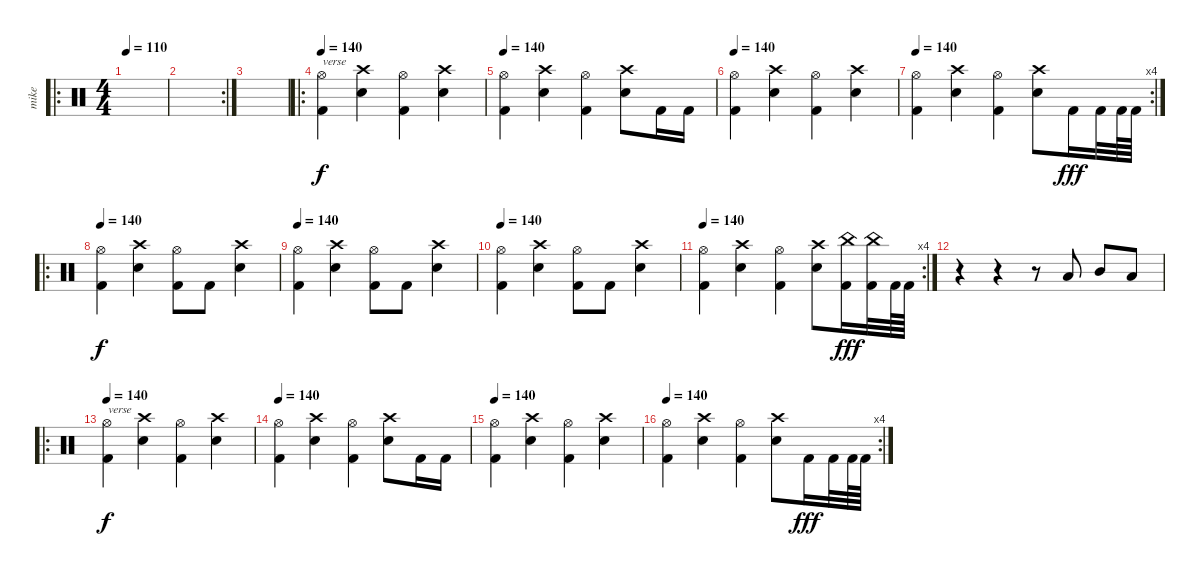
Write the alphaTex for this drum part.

\track ("mike" "mike") {instrument percussion}
\staff {score}
\articulation defaults
\ro
\ts (4 4)
\tempo 110
\clef neutral
\ks c
|
\rc 2
|
|
\ro
\tempo 140
("Hi-Hat (open)" "Kick (hit) 2").4{txt "verse"} ("Crash high (hit)" "Electric Snare (hit)").4 ("Hi-Hat (open)" "Kick (hit) 2").4 ("Crash high (hit)" "Electric Snare (hit)").4 |
\tempo 140
("Hi-Hat (open)" "Kick (hit) 2").4 ("Crash high (hit)" "Electric Snare (hit)").4 ("Hi-Hat (open)" "Kick (hit) 2").4 ("Crash high (hit)" "Electric Snare (hit)").8 "Kick (hit) 2".16 "Kick (hit) 2".16 |
\tempo 140
("Hi-Hat (open)" "Kick (hit) 2").4 ("Crash high (hit)" "Electric Snare (hit)").4 ("Hi-Hat (open)" "Kick (hit) 2").4 ("Crash high (hit)" "Electric Snare (hit)").4 |
\rc 4
\tempo 140
("Hi-Hat (open)" "Kick (hit) 2").4 ("Crash high (hit)" "Electric Snare (hit)").4 ("Hi-Hat (open)" "Kick (hit) 2").4 ("Crash high (hit)" "Electric Snare (hit)").8 "Kick (hit) 2".16{dy fff} "Kick (hit) 2".32 "Kick (hit) 2".64 "Kick (hit) 2".64 |
\ro
\tempo 140
("Hi-Hat (open)" "Kick (hit) 2").4{dy f} ("Crash high (hit)" "Electric Snare (hit)").4 ("Hi-Hat (open)" "Kick (hit) 2").8 "Kick (hit) 2".8 ("Crash high (hit)" "Electric Snare (hit)").4 |
\tempo 140
("Hi-Hat (open)" "Kick (hit) 2").4 ("Crash high (hit)" "Electric Snare (hit)").4 ("Hi-Hat (open)" "Kick (hit) 2").8 "Kick (hit) 2".8 ("Crash high (hit)" "Electric Snare (hit)").4 |
\tempo 140
("Hi-Hat (open)" "Kick (hit) 2").4 ("Crash high (hit)" "Electric Snare (hit)").4 ("Hi-Hat (open)" "Kick (hit) 2").8 "Kick (hit) 2".8 ("Crash high (hit)" "Electric Snare (hit)").4 |
\rc 4
\tempo 140
("Hi-Hat (open)" "Kick (hit) 2").4 ("Crash high (hit)" "Electric Snare (hit)").4 ("Hi-Hat (open)" "Kick (hit) 2").4 ("Crash high (hit)" "Electric Snare (hit)").8 ("China (hit)" "Kick (hit) 2").16{dy fff} ("China (hit)" "Kick (hit) 2").32 "Kick (hit) 2".64 "Kick (hit) 2".64 |
r.4 r.4 r.8 "Low Floor Tom (hit)".8 "Mid Tom (hit)".8 "Low Tom (hit)".8 |
\ro
\tempo 140
("Hi-Hat (open)" "Kick (hit) 2").4{txt "verse" dy f} ("Crash high (hit)" "Electric Snare (hit)").4 ("Hi-Hat (open)" "Kick (hit) 2").4 ("Crash high (hit)" "Electric Snare (hit)").4 |
\tempo 140
("Hi-Hat (open)" "Kick (hit) 2").4 ("Crash high (hit)" "Electric Snare (hit)").4 ("Hi-Hat (open)" "Kick (hit) 2").4 ("Crash high (hit)" "Electric Snare (hit)").8 "Kick (hit) 2".16 "Kick (hit) 2".16 |
\tempo 140
("Hi-Hat (open)" "Kick (hit) 2").4 ("Crash high (hit)" "Electric Snare (hit)").4 ("Hi-Hat (open)" "Kick (hit) 2").4 ("Crash high (hit)" "Electric Snare (hit)").4 |
\rc 4
\tempo 140
("Hi-Hat (open)" "Kick (hit) 2").4 ("Crash high (hit)" "Electric Snare (hit)").4 ("Hi-Hat (open)" "Kick (hit) 2").4 ("Crash high (hit)" "Electric Snare (hit)").8 "Kick (hit) 2".16{dy fff} "Kick (hit) 2".32 "Kick (hit) 2".64 "Kick (hit) 2".64
